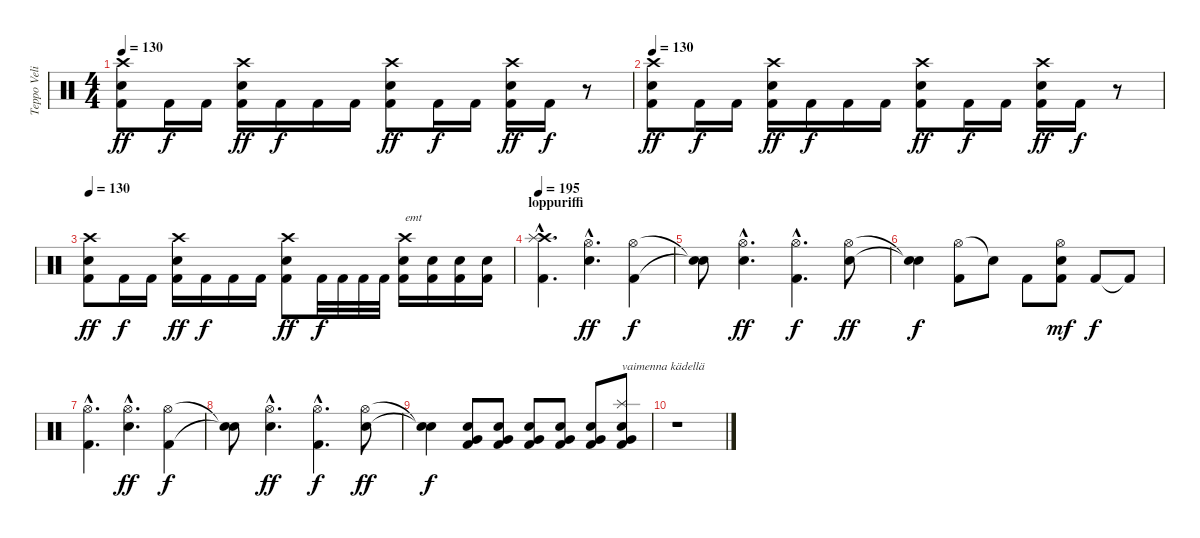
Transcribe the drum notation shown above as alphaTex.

\track ("Teppo Velin" "Teppo Veli") {instrument percussion}
\staff {score}
\articulation defaults
\ts (4 4)
\tempo 130
\clef neutral
\ks c
("Crash high (hit)" "Electric Snare (hit)" "Kick (hit) 2").8{dy ff} "Kick (hit) 2".16{dy f} "Kick (hit) 2".16 ("Crash high (hit)" "Electric Snare (hit)" "Kick (hit) 2").16{dy ff} "Kick (hit) 2".16{dy f} "Kick (hit) 2".16 "Kick (hit) 2".16 ("Crash high (hit)" "Electric Snare (hit)" "Kick (hit) 2").8{dy ff} "Kick (hit) 2".16{dy f} "Kick (hit) 2".16 ("Crash high (hit)" "Electric Snare (hit)" "Kick (hit) 2").16{dy ff} "Kick (hit) 2".16{dy f} r.8 |
\tempo 130
("Crash high (hit)" "Electric Snare (hit)" "Kick (hit) 2").8{dy ff} "Kick (hit) 2".16{dy f} "Kick (hit) 2".16 ("Crash high (hit)" "Electric Snare (hit)" "Kick (hit) 2").16{dy ff} "Kick (hit) 2".16{dy f} "Kick (hit) 2".16 "Kick (hit) 2".16 ("Crash high (hit)" "Electric Snare (hit)" "Kick (hit) 2").8{dy ff} "Kick (hit) 2".16{dy f} "Kick (hit) 2".16 ("Crash high (hit)" "Electric Snare (hit)" "Kick (hit) 2").16{dy ff} "Kick (hit) 2".16{dy f} r.8 |
\tempo 130
("Crash high (hit)" "Electric Snare (hit)" "Kick (hit) 2").8{dy ff} "Kick (hit) 2".16{dy f} "Kick (hit) 2".16 ("Crash high (hit)" "Electric Snare (hit)" "Kick (hit) 2").16{dy ff} "Kick (hit) 2".16{dy f} "Kick (hit) 2".16 "Kick (hit) 2".16 ("Crash high (hit)" "Electric Snare (hit)" "Kick (hit) 2").8{dy ff} "Kick (hit) 2".32{dy f} "Kick (hit) 2".32 "Kick (hit) 2".32 "Kick (hit) 2".32 ("Crash high (hit)" "Electric Snare (hit)" "Kick (hit) 2").16{txt "emt"} ("Electric Snare (hit)" "Kick (hit) 2").16 ("Electric Snare (hit)" "Kick (hit) 2").16 ("Electric Snare (hit)" "Kick (hit) 2").16 |
\section ("" "loppuriffi")
\tempo 195
("Crash high (hit)"{hac} "Splash (hit)"{hac} "Kick (hit) 2"{hac}).4{d} ("Hi-Hat (open)"{hac} "Electric Snare (hit)"{hac}).4{d dy ff} ("Hi-Hat (open)" "Kick (hit) 2").4{dy f} |
("Snare (hit)"{t} "Snare (hit)"{t}).8 ("Hi-Hat (open)"{hac} "Electric Snare (hit)"{hac}).4{d dy ff} ("Hi-Hat (open)"{hac} "Kick (hit) 2"{hac}).4{d dy f} ("Hi-Hat (open)" "Electric Snare (hit)").8{dy ff} |
("Snare (hit)"{t} "Snare (hit)"{t}).4{dy f} ("Hi-Hat (open)" "Kick (hit) 2").8 "Snare (hit)"{t}.8 "Kick (hit) 2".8 ("Hi-Hat (open)" "Electric Snare (hit)" "Kick (hit) 2").8{dy mf} "Kick (hit) 2".8{dy f} "Kick (hit) 2"{t}.8 |
("Hi-Hat (open)"{hac} "Kick (hit) 2"{hac}).4{d} ("Hi-Hat (open)"{hac} "Electric Snare (hit)"{hac}).4{d dy ff} ("Hi-Hat (open)" "Kick (hit) 2").4{dy f} |
("Snare (hit)"{t} "Snare (hit)"{t}).8 ("Hi-Hat (open)"{hac} "Electric Snare (hit)"{hac}).4{d dy ff} ("Hi-Hat (open)"{hac} "Kick (hit) 2"{hac}).4{d dy f} ("Hi-Hat (open)" "Electric Snare (hit)").8{dy ff} |
("Snare (hit)"{t} "Snare (hit)"{t}).4{dy f} ("Very Low Tom (hit)" "Electric Snare (hit)" "Kick (hit) 2").8 ("Very Low Tom (hit)" "Electric Snare (hit)" "Kick (hit) 2").8 ("Very Low Tom (hit)" "Electric Snare (hit)" "Kick (hit) 2").8 ("Very Low Tom (hit)" "Electric Snare (hit)" "Kick (hit) 2").8 ("Very Low Tom (hit)" "Electric Snare (hit)" "Kick (hit) 2").8 ("Splash (hit)"{pm} "Very Low Tom (hit)" "Electric Snare (hit)" "Kick (hit) 2").8{txt "vaimenna kädellä"} |
r.1
